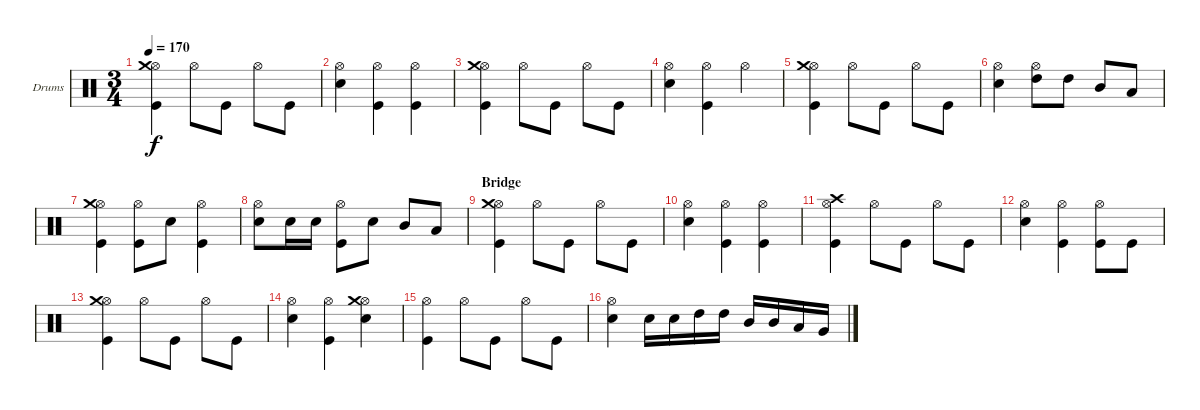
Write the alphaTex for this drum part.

\defaultSystemsLayout 4
\bracketExtendMode groupsimilarinstruments
\firstSystemTrackNameOrientation horizontal
\otherSystemsTrackNameOrientation horizontal
\track ("Drums" "Drums") {instrument percussion}
\staff {score}
\articulation defaults
\ts (3 4)
\tempo 170
\clef neutral
\ks c
("Hi-Hat (open)" "Kick (hit)" "Crash medium (hit)").4{dy f} "Hi-Hat (open)".8 "Kick (hit)".8 "Hi-Hat (open)".8 "Kick (hit)".8 |
("Hi-Hat (open)" "Snare (hit) 2").4 ("Hi-Hat (open)" "Kick (hit)").4 ("Hi-Hat (open)" "Kick (hit)").4 |
("Hi-Hat (open)" "Kick (hit)" "Crash medium (hit)").4 "Hi-Hat (open)".8 "Kick (hit)".8 "Hi-Hat (open)".8 "Kick (hit)".8 |
("Hi-Hat (open)" "Snare (hit) 2").4 ("Hi-Hat (open)" "Kick (hit)").4 "Hi-Hat (open)".4 |
("Hi-Hat (open)" "Kick (hit)" "Crash medium (hit)").4 "Hi-Hat (open)".8 "Kick (hit)".8 "Hi-Hat (open)".8 "Kick (hit)".8 |
("Hi-Hat (open)" "Snare (hit) 2").4 ("Hi-Hat (open)" "High Tom (hit)").8 "High Tom (hit)".8 "Mid Tom (hit)".8 "Low Tom (hit)".8 |
("Hi-Hat (open)" "Kick (hit)" "Crash medium (hit)").4 ("Hi-Hat (open)" "Kick (hit)").8 "Snare (hit) 2".8 ("Hi-Hat (open)" "Kick (hit)").4 |
("Hi-Hat (open)" "Snare (hit) 2").8 "Snare (hit) 2".16 "Snare (hit) 2".16 ("Hi-Hat (open)" "Kick (hit)").8 "Snare (hit) 2".8 "Mid Tom (hit)".8 "Low Tom (hit)".8 |
\section ("" "Bridge")
("Hi-Hat (open)" "Kick (hit)" "Crash medium (hit)").4 "Hi-Hat (open)".8 "Kick (hit)".8 "Hi-Hat (open)".8 "Kick (hit)".8 |
("Hi-Hat (open)" "Snare (hit) 2").4 ("Hi-Hat (open)" "Kick (hit)").4 ("Hi-Hat (open)" "Kick (hit)").4 |
("Hi-Hat (open)" "Kick (hit)" "Crash high (hit)").4 "Hi-Hat (open)".8 "Kick (hit)".8 "Hi-Hat (open)".8 "Kick (hit)".8 |
("Hi-Hat (open)" "Snare (hit) 2").4 ("Hi-Hat (open)" "Kick (hit)").4 ("Hi-Hat (open)" "Kick (hit)").8 "Kick (hit)".8 |
("Hi-Hat (open)" "Kick (hit)" "Crash medium (hit)").4 "Hi-Hat (open)".8 "Kick (hit)".8 "Hi-Hat (open)".8 "Kick (hit)".8 |
("Hi-Hat (open)" "Snare (hit) 2").4 ("Hi-Hat (open)" "Kick (hit)").4 ("Hi-Hat (open)" "Snare (hit) 2" "Crash medium (hit)").4 |
("Hi-Hat (open)" "Kick (hit)").4 "Hi-Hat (open)".8 "Kick (hit)".8 "Hi-Hat (open)".8 "Kick (hit)".8 |
("Hi-Hat (open)" "Snare (hit) 2").4 "Snare (hit) 2".16 "Snare (hit) 2".16 "High Tom (hit)".16 "High Tom (hit)".16 "Mid Tom (hit)".16 "Mid Tom (hit)".16 "Low Tom (hit)".16 "Very Low Tom (hit)".16
